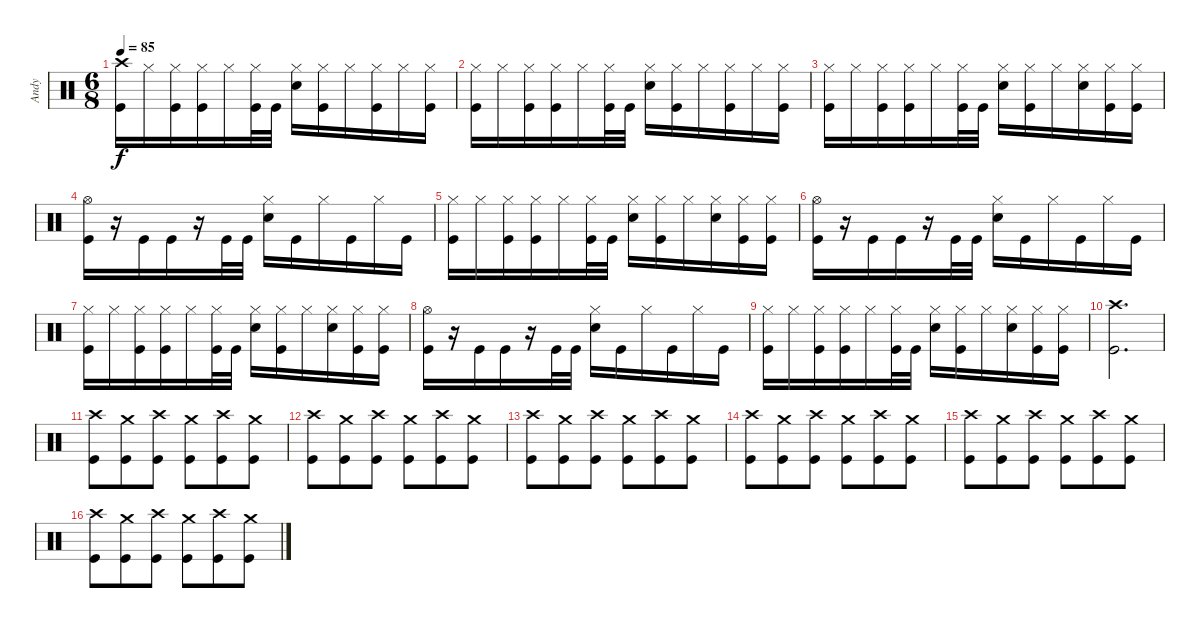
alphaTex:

\track ("Andy" "Andy") {instrument percussion}
\staff {score}
\articulation defaults
\ts (6 8)
\tempo 85
\clef neutral
\ks c
("Kick (hit)" "Crash high (hit)").16{dy f} "Hi-Hat (closed)".16 ("Hi-Hat (closed)" "Kick (hit)").16 ("Hi-Hat (closed)" "Kick (hit)").16 "Hi-Hat (closed)".16 ("Kick (hit)" "Hi-Hat (closed)").32 "Kick (hit)".32 ("Snare (hit) 2" "Hi-Hat (closed)").16 ("Hi-Hat (closed)" "Kick (hit)").16 "Hi-Hat (closed)".16 ("Hi-Hat (closed)" "Kick (hit)").16 "Hi-Hat (closed)".16 ("Hi-Hat (closed)" "Kick (hit)").16 |
("Kick (hit)" "Hi-Hat (closed)").16 "Hi-Hat (closed)".16 ("Hi-Hat (closed)" "Kick (hit)").16 ("Hi-Hat (closed)" "Kick (hit)").16 "Hi-Hat (closed)".16 ("Kick (hit)" "Hi-Hat (closed)").32 "Kick (hit)".32 ("Snare (hit) 2" "Hi-Hat (closed)").16 ("Hi-Hat (closed)" "Kick (hit)").16 "Hi-Hat (closed)".16 ("Hi-Hat (closed)" "Kick (hit)").16 "Hi-Hat (closed)".16 ("Hi-Hat (closed)" "Kick (hit)").16 |
("Kick (hit)" "Hi-Hat (closed)").16 "Hi-Hat (closed)".16 ("Hi-Hat (closed)" "Kick (hit)").16 ("Hi-Hat (closed)" "Kick (hit)").16 "Hi-Hat (closed)".16 ("Kick (hit)" "Hi-Hat (closed)").32 "Kick (hit)".32 ("Snare (hit) 2" "Hi-Hat (closed)").16 ("Hi-Hat (closed)" "Kick (hit)").16 "Hi-Hat (closed)".16 ("Hi-Hat (closed)" "Snare (hit) 2").16 ("Hi-Hat (closed)" "Kick (hit)").16 ("Hi-Hat (closed)" "Kick (hit)").16 |
("Kick (hit)" "Hi-Hat (open)").16 r.16 "Kick (hit)".16 "Kick (hit)".16 r.16 "Kick (hit)".32 "Kick (hit)".32 ("Snare (hit) 2" "Hi-Hat (closed)").16 "Kick (hit)".16 "Hi-Hat (closed)".16 "Kick (hit)".16 "Hi-Hat (closed)".16 "Kick (hit)".16 |
("Kick (hit)" "Hi-Hat (closed)").16 "Hi-Hat (closed)".16 ("Hi-Hat (closed)" "Kick (hit)").16 ("Hi-Hat (closed)" "Kick (hit)").16 "Hi-Hat (closed)".16 ("Kick (hit)" "Hi-Hat (closed)").32 "Kick (hit)".32 ("Snare (hit) 2" "Hi-Hat (closed)").16 ("Hi-Hat (closed)" "Kick (hit)").16 "Hi-Hat (closed)".16 ("Hi-Hat (closed)" "Snare (hit) 2").16 ("Hi-Hat (closed)" "Kick (hit)").16 ("Hi-Hat (closed)" "Kick (hit)").16 |
("Kick (hit)" "Hi-Hat (open)").16 r.16 "Kick (hit)".16 "Kick (hit)".16 r.16 "Kick (hit)".32 "Kick (hit)".32 ("Snare (hit) 2" "Hi-Hat (closed)").16 "Kick (hit)".16 "Hi-Hat (closed)".16 "Kick (hit)".16 "Hi-Hat (closed)".16 "Kick (hit)".16 |
("Kick (hit)" "Hi-Hat (closed)").16 "Hi-Hat (closed)".16 ("Hi-Hat (closed)" "Kick (hit)").16 ("Hi-Hat (closed)" "Kick (hit)").16 "Hi-Hat (closed)".16 ("Kick (hit)" "Hi-Hat (closed)").32 "Kick (hit)".32 ("Snare (hit) 2" "Hi-Hat (closed)").16 ("Hi-Hat (closed)" "Kick (hit)").16 "Hi-Hat (closed)".16 ("Hi-Hat (closed)" "Snare (hit) 2").16 ("Hi-Hat (closed)" "Kick (hit)").16 ("Hi-Hat (closed)" "Kick (hit)").16 |
("Kick (hit)" "Hi-Hat (open)").16 r.16 "Kick (hit)".16 "Kick (hit)".16 r.16 "Kick (hit)".32 "Kick (hit)".32 ("Snare (hit) 2" "Hi-Hat (closed)").16 "Kick (hit)".16 "Hi-Hat (closed)".16 "Kick (hit)".16 "Hi-Hat (closed)".16 "Kick (hit)".16 |
("Kick (hit)" "Hi-Hat (closed)").16 "Hi-Hat (closed)".16 ("Hi-Hat (closed)" "Kick (hit)").16 ("Hi-Hat (closed)" "Kick (hit)").16 "Hi-Hat (closed)".16 ("Kick (hit)" "Hi-Hat (closed)").32 "Kick (hit)".32 ("Snare (hit) 2" "Hi-Hat (closed)").16 ("Hi-Hat (closed)" "Kick (hit)").16 "Hi-Hat (closed)".16 ("Hi-Hat (closed)" "Snare (hit) 2").16 ("Hi-Hat (closed)" "Kick (hit)").16 ("Hi-Hat (closed)" "Kick (hit)").16 |
("Kick (hit)" "Crash high (hit)").2{d} |
("Kick (hit)" "Crash high (hit)").8 ("Kick (hit)" "Crash medium (hit)").8 ("Kick (hit)" "Crash high (hit)").8 ("Kick (hit)" "Crash medium (hit)").8 ("Kick (hit)" "Crash high (hit)").8 ("Kick (hit)" "Crash medium (hit)").8 |
("Kick (hit)" "Crash high (hit)").8 ("Kick (hit)" "Crash medium (hit)").8 ("Kick (hit)" "Crash high (hit)").8 ("Kick (hit)" "Crash medium (hit)").8 ("Kick (hit)" "Crash high (hit)").8 ("Kick (hit)" "Crash medium (hit)").8 |
("Kick (hit)" "Crash high (hit)").8 ("Kick (hit)" "Crash medium (hit)").8 ("Kick (hit)" "Crash high (hit)").8 ("Kick (hit)" "Crash medium (hit)").8 ("Kick (hit)" "Crash high (hit)").8 ("Kick (hit)" "Crash medium (hit)").8 |
("Kick (hit)" "Crash high (hit)").8 ("Kick (hit)" "Crash medium (hit)").8 ("Kick (hit)" "Crash high (hit)").8 ("Kick (hit)" "Crash medium (hit)").8 ("Kick (hit)" "Crash high (hit)").8 ("Kick (hit)" "Crash medium (hit)").8 |
("Kick (hit)" "Crash high (hit)").8 ("Kick (hit)" "Crash medium (hit)").8 ("Kick (hit)" "Crash high (hit)").8 ("Kick (hit)" "Crash medium (hit)").8 ("Kick (hit)" "Crash high (hit)").8 ("Kick (hit)" "Crash medium (hit)").8 |
("Kick (hit)" "Crash high (hit)").8 ("Kick (hit)" "Crash medium (hit)").8 ("Kick (hit)" "Crash high (hit)").8 ("Kick (hit)" "Crash medium (hit)").8 ("Kick (hit)" "Crash high (hit)").8 ("Kick (hit)" "Crash medium (hit)").8
